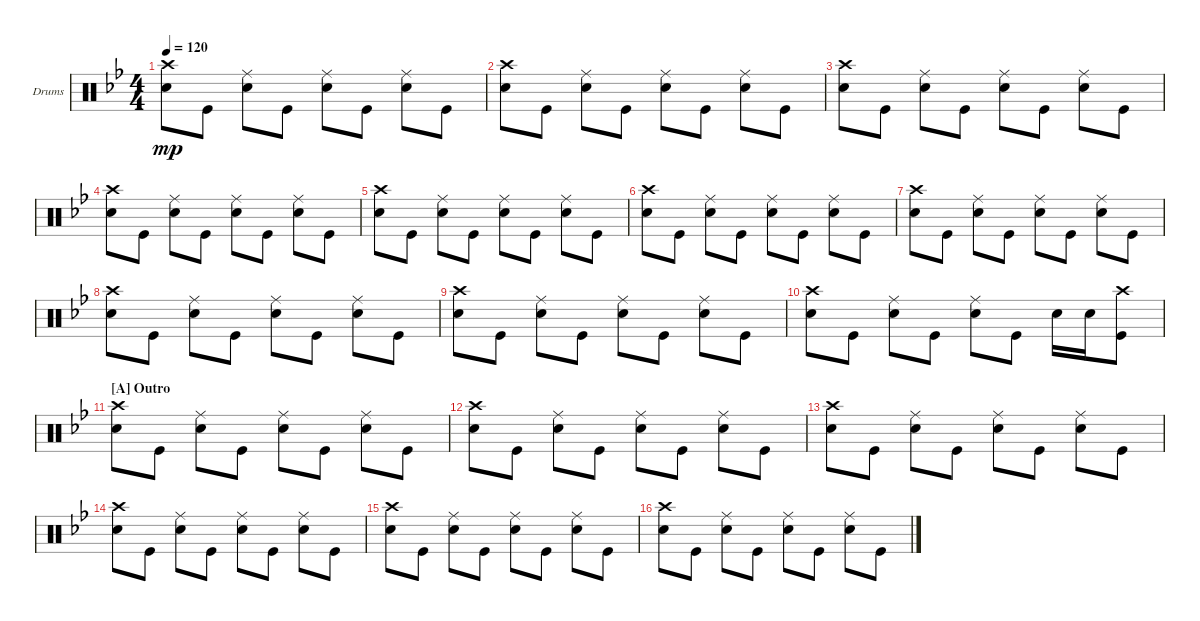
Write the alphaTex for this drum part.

\bracketExtendMode groupsimilarinstruments
\firstSystemTrackNameOrientation horizontal
\otherSystemsTrackNameOrientation horizontal
\track ("Drums Ghoul" "Drums") {instrument percussion}
\staff {score}
\articulation defaults
\ts (4 4)
\tempo 120
\clef neutral
\ks bb
("Snare (hit) 2" "Crash high (hit)").8{dy mp} "Kick (hit)".8 ("Snare (hit) 2" "Ride (middle)").8 "Kick (hit)".8 ("Snare (hit) 2" "Ride (middle)").8 "Kick (hit)".8 ("Snare (hit) 2" "Ride (middle)").8 "Kick (hit)".8 |
("Snare (hit) 2" "Crash high (hit)").8 "Kick (hit)".8 ("Snare (hit) 2" "Ride (middle)").8 "Kick (hit)".8 ("Snare (hit) 2" "Ride (middle)").8 "Kick (hit)".8 ("Snare (hit) 2" "Ride (middle)").8 "Kick (hit)".8 |
("Snare (hit) 2" "Crash high (hit)").8 "Kick (hit)".8 ("Snare (hit) 2" "Ride (middle)").8 "Kick (hit)".8 ("Snare (hit) 2" "Ride (middle)").8 "Kick (hit)".8 ("Snare (hit) 2" "Ride (middle)").8 "Kick (hit)".8 |
("Snare (hit) 2" "Crash high (hit)").8 "Kick (hit)".8 ("Snare (hit) 2" "Ride (middle)").8 "Kick (hit)".8 ("Snare (hit) 2" "Ride (middle)").8 "Kick (hit)".8 ("Snare (hit) 2" "Ride (middle)").8 "Kick (hit)".8 |
("Snare (hit) 2" "Crash high (hit)").8 "Kick (hit)".8 ("Snare (hit) 2" "Ride (middle)").8 "Kick (hit)".8 ("Snare (hit) 2" "Ride (middle)").8 "Kick (hit)".8 ("Snare (hit) 2" "Ride (middle)").8 "Kick (hit)".8 |
("Snare (hit) 2" "Crash high (hit)").8 "Kick (hit)".8 ("Snare (hit) 2" "Ride (middle)").8 "Kick (hit)".8 ("Snare (hit) 2" "Ride (middle)").8 "Kick (hit)".8 ("Snare (hit) 2" "Ride (middle)").8 "Kick (hit)".8 |
("Snare (hit) 2" "Crash high (hit)").8 "Kick (hit)".8 ("Snare (hit) 2" "Ride (middle)").8 "Kick (hit)".8 ("Snare (hit) 2" "Ride (middle)").8 "Kick (hit)".8 ("Snare (hit) 2" "Ride (middle)").8 "Kick (hit)".8 |
("Snare (hit) 2" "Crash high (hit)").8 "Kick (hit)".8 ("Snare (hit) 2" "Ride (middle)").8 "Kick (hit)".8 ("Snare (hit) 2" "Ride (middle)").8 "Kick (hit)".8 ("Snare (hit) 2" "Ride (middle)").8 "Kick (hit)".8 |
("Snare (hit) 2" "Crash high (hit)").8 "Kick (hit)".8 ("Snare (hit) 2" "Ride (middle)").8 "Kick (hit)".8 ("Snare (hit) 2" "Ride (middle)").8 "Kick (hit)".8 ("Snare (hit) 2" "Ride (middle)").8 "Kick (hit)".8 |
("Snare (hit) 2" "Crash high (hit)").8 "Kick (hit)".8 ("Snare (hit) 2" "Ride (middle)").8 "Kick (hit)".8 ("Snare (hit) 2" "Ride (middle)").8 "Kick (hit)".8 "Snare (hit) 2".16 "Snare (hit) 2".16 ("Kick (hit)" "Crash high (hit)").8 |
\section ("A" "Outro")
("Snare (hit) 2" "Crash high (hit)").8 "Kick (hit)".8 ("Snare (hit) 2" "Ride (middle)").8 "Kick (hit)".8 ("Snare (hit) 2" "Ride (middle)").8 "Kick (hit)".8 ("Snare (hit) 2" "Ride (middle)").8 "Kick (hit)".8 |
("Snare (hit) 2" "Crash high (hit)").8 "Kick (hit)".8 ("Snare (hit) 2" "Ride (middle)").8 "Kick (hit)".8 ("Snare (hit) 2" "Ride (middle)").8 "Kick (hit)".8 ("Snare (hit) 2" "Ride (middle)").8 "Kick (hit)".8 |
("Snare (hit) 2" "Crash high (hit)").8 "Kick (hit)".8 ("Snare (hit) 2" "Ride (middle)").8 "Kick (hit)".8 ("Snare (hit) 2" "Ride (middle)").8 "Kick (hit)".8 ("Snare (hit) 2" "Ride (middle)").8 "Kick (hit)".8 |
("Snare (hit) 2" "Crash high (hit)").8 "Kick (hit)".8 ("Snare (hit) 2" "Ride (middle)").8 "Kick (hit)".8 ("Snare (hit) 2" "Ride (middle)").8 "Kick (hit)".8 ("Snare (hit) 2" "Ride (middle)").8 "Kick (hit)".8 |
("Snare (hit) 2" "Crash high (hit)").8 "Kick (hit)".8 ("Snare (hit) 2" "Ride (middle)").8 "Kick (hit)".8 ("Snare (hit) 2" "Ride (middle)").8 "Kick (hit)".8 ("Snare (hit) 2" "Ride (middle)").8 "Kick (hit)".8 |
("Snare (hit) 2" "Crash high (hit)").8 "Kick (hit)".8 ("Snare (hit) 2" "Ride (middle)").8 "Kick (hit)".8 ("Snare (hit) 2" "Ride (middle)").8 "Kick (hit)".8 ("Snare (hit) 2" "Ride (middle)").8 "Kick (hit)".8
